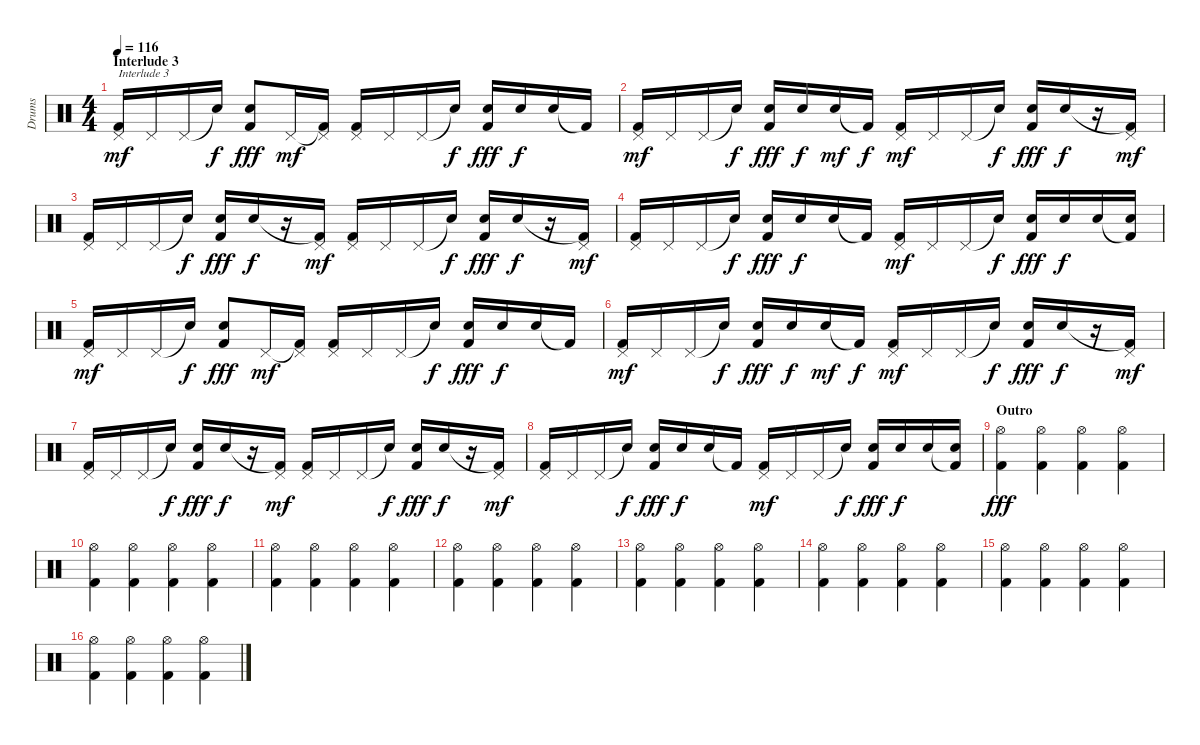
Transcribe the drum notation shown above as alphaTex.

\track ("Drums" "Drums") {instrument percussion}
\staff {score}
\articulation defaults
\ts (4 4)
\section ("" "Interlude 3")
\tempo 116
\clef neutral
\ks c
("Kick (hit) 2" "Pedal Hi-Hat (hit)").16{txt "Interlude 3" dy mf} "Pedal Hi-Hat (hit)".16 "Pedal Hi-Hat (hit)".16 "Snare (hit)"{t}.16{dy f} ("Kick (hit) 2" "Electric Snare (hit)").8{dy fff} "Pedal Hi-Hat (hit)".16{dy mf} ("Kick (hit) 2"{t} "Pedal Hi-Hat (hit)").16 ("Kick (hit) 2" "Pedal Hi-Hat (hit)").16 "Pedal Hi-Hat (hit)".16 "Pedal Hi-Hat (hit)".16 "Snare (hit)"{t}.16{dy f} ("Kick (hit) 2" "Electric Snare (hit)").16{dy fff} "Electric Snare (hit)".16{dy f} "Electric Snare (hit)".16 "Kick (hit) 2"{t}.16 |
("Kick (hit) 2" "Pedal Hi-Hat (hit)").16{dy mf} "Pedal Hi-Hat (hit)".16 "Pedal Hi-Hat (hit)".16 "Snare (hit)"{t}.16{dy f} ("Kick (hit) 2" "Electric Snare (hit)").16{dy fff} "Electric Snare (hit)".16{dy f} "Electric Snare (hit)".16{dy mf} "Kick (hit) 2"{t}.16{dy f} ("Kick (hit) 2" "Pedal Hi-Hat (hit)").16{dy mf} "Pedal Hi-Hat (hit)".16 "Pedal Hi-Hat (hit)".16 "Snare (hit)"{t}.16{dy f} ("Kick (hit) 2" "Electric Snare (hit)").16{dy fff} "Electric Snare (hit)".16{dy f} r.16 ("Kick (hit) 2"{t} "Pedal Hi-Hat (hit)").16{dy mf} |
("Kick (hit) 2" "Pedal Hi-Hat (hit)").16 "Pedal Hi-Hat (hit)".16 "Pedal Hi-Hat (hit)".16 "Snare (hit)"{t}.16{dy f} ("Kick (hit) 2" "Electric Snare (hit)").16{dy fff} "Electric Snare (hit)".16{dy f} r.16 ("Kick (hit) 2"{t} "Pedal Hi-Hat (hit)").16{dy mf} ("Kick (hit) 2" "Pedal Hi-Hat (hit)").16 "Pedal Hi-Hat (hit)".16 "Pedal Hi-Hat (hit)".16 "Snare (hit)"{t}.16{dy f} ("Kick (hit) 2" "Electric Snare (hit)").16{dy fff} "Electric Snare (hit)".16{dy f} r.16 ("Kick (hit) 2"{t} "Pedal Hi-Hat (hit)").16{dy mf} |
("Kick (hit) 2" "Pedal Hi-Hat (hit)").16 "Pedal Hi-Hat (hit)".16 "Pedal Hi-Hat (hit)".16 "Snare (hit)"{t}.16{dy f} ("Kick (hit) 2" "Electric Snare (hit)").16{dy fff} "Electric Snare (hit)".16{dy f} "Electric Snare (hit)".16 "Kick (hit) 2"{t}.16 ("Kick (hit) 2" "Pedal Hi-Hat (hit)").16{dy mf} "Pedal Hi-Hat (hit)".16 "Pedal Hi-Hat (hit)".16 "Snare (hit)"{t}.16{dy f} ("Kick (hit) 2" "Electric Snare (hit)").16{dy fff} "Electric Snare (hit)".16{dy f} "Electric Snare (hit)".16 ("Kick (hit) 2"{t} "Electric Snare (hit)").16 |
("Kick (hit) 2" "Pedal Hi-Hat (hit)").16{dy mf} "Pedal Hi-Hat (hit)".16 "Pedal Hi-Hat (hit)".16 "Snare (hit)"{t}.16{dy f} ("Kick (hit) 2" "Electric Snare (hit)").8{dy fff} "Pedal Hi-Hat (hit)".16{dy mf} ("Kick (hit) 2"{t} "Pedal Hi-Hat (hit)").16 ("Kick (hit) 2" "Pedal Hi-Hat (hit)").16 "Pedal Hi-Hat (hit)".16 "Pedal Hi-Hat (hit)".16 "Snare (hit)"{t}.16{dy f} ("Kick (hit) 2" "Electric Snare (hit)").16{dy fff} "Electric Snare (hit)".16{dy f} "Electric Snare (hit)".16 "Kick (hit) 2"{t}.16 |
("Kick (hit) 2" "Pedal Hi-Hat (hit)").16{dy mf} "Pedal Hi-Hat (hit)".16 "Pedal Hi-Hat (hit)".16 "Snare (hit)"{t}.16{dy f} ("Kick (hit) 2" "Electric Snare (hit)").16{dy fff} "Electric Snare (hit)".16{dy f} "Electric Snare (hit)".16{dy mf} "Kick (hit) 2"{t}.16{dy f} ("Kick (hit) 2" "Pedal Hi-Hat (hit)").16{dy mf} "Pedal Hi-Hat (hit)".16 "Pedal Hi-Hat (hit)".16 "Snare (hit)"{t}.16{dy f} ("Kick (hit) 2" "Electric Snare (hit)").16{dy fff} "Electric Snare (hit)".16{dy f} r.16 ("Kick (hit) 2"{t} "Pedal Hi-Hat (hit)").16{dy mf} |
("Kick (hit) 2" "Pedal Hi-Hat (hit)").16 "Pedal Hi-Hat (hit)".16 "Pedal Hi-Hat (hit)".16 "Snare (hit)"{t}.16{dy f} ("Kick (hit) 2" "Electric Snare (hit)").16{dy fff} "Electric Snare (hit)".16{dy f} r.16 ("Kick (hit) 2"{t} "Pedal Hi-Hat (hit)").16{dy mf} ("Kick (hit) 2" "Pedal Hi-Hat (hit)").16 "Pedal Hi-Hat (hit)".16 "Pedal Hi-Hat (hit)".16 "Snare (hit)"{t}.16{dy f} ("Kick (hit) 2" "Electric Snare (hit)").16{dy fff} "Electric Snare (hit)".16{dy f} r.16 ("Kick (hit) 2"{t} "Pedal Hi-Hat (hit)").16{dy mf} |
("Kick (hit) 2" "Pedal Hi-Hat (hit)").16 "Pedal Hi-Hat (hit)".16 "Pedal Hi-Hat (hit)".16 "Snare (hit)"{t}.16{dy f} ("Kick (hit) 2" "Electric Snare (hit)").16{dy fff} "Electric Snare (hit)".16{dy f} "Electric Snare (hit)".16 "Kick (hit) 2"{t}.16 ("Kick (hit) 2" "Pedal Hi-Hat (hit)").16{dy mf} "Pedal Hi-Hat (hit)".16 "Pedal Hi-Hat (hit)".16 "Snare (hit)"{t}.16{dy f} ("Kick (hit) 2" "Electric Snare (hit)").16{dy fff} "Electric Snare (hit)".16{dy f} "Electric Snare (hit)".16 ("Kick (hit) 2"{t} "Electric Snare (hit)").16 |
\section ("" "Outro")
("Kick (hit) 2" "Hi-Hat (open)").4{dy fff} ("Kick (hit) 2" "Hi-Hat (open)").4 ("Kick (hit) 2" "Hi-Hat (open)").4 ("Kick (hit) 2" "Hi-Hat (open)").4 |
("Kick (hit) 2" "Hi-Hat (open)").4 ("Kick (hit) 2" "Hi-Hat (open)").4 ("Kick (hit) 2" "Hi-Hat (open)").4 ("Kick (hit) 2" "Hi-Hat (open)").4 |
("Kick (hit) 2" "Hi-Hat (open)").4 ("Kick (hit) 2" "Hi-Hat (open)").4 ("Kick (hit) 2" "Hi-Hat (open)").4 ("Kick (hit) 2" "Hi-Hat (open)").4 |
("Kick (hit) 2" "Hi-Hat (open)").4 ("Kick (hit) 2" "Hi-Hat (open)").4 ("Kick (hit) 2" "Hi-Hat (open)").4 ("Kick (hit) 2" "Hi-Hat (open)").4 |
("Kick (hit) 2" "Hi-Hat (open)").4 ("Kick (hit) 2" "Hi-Hat (open)").4 ("Kick (hit) 2" "Hi-Hat (open)").4 ("Kick (hit) 2" "Hi-Hat (open)").4 |
("Kick (hit) 2" "Hi-Hat (open)").4 ("Kick (hit) 2" "Hi-Hat (open)").4 ("Kick (hit) 2" "Hi-Hat (open)").4 ("Kick (hit) 2" "Hi-Hat (open)").4 |
("Kick (hit) 2" "Hi-Hat (open)").4 ("Kick (hit) 2" "Hi-Hat (open)").4 ("Kick (hit) 2" "Hi-Hat (open)").4 ("Kick (hit) 2" "Hi-Hat (open)").4 |
("Kick (hit) 2" "Hi-Hat (open)").4 ("Kick (hit) 2" "Hi-Hat (open)").4 ("Kick (hit) 2" "Hi-Hat (open)").4 ("Kick (hit) 2" "Hi-Hat (open)").4
